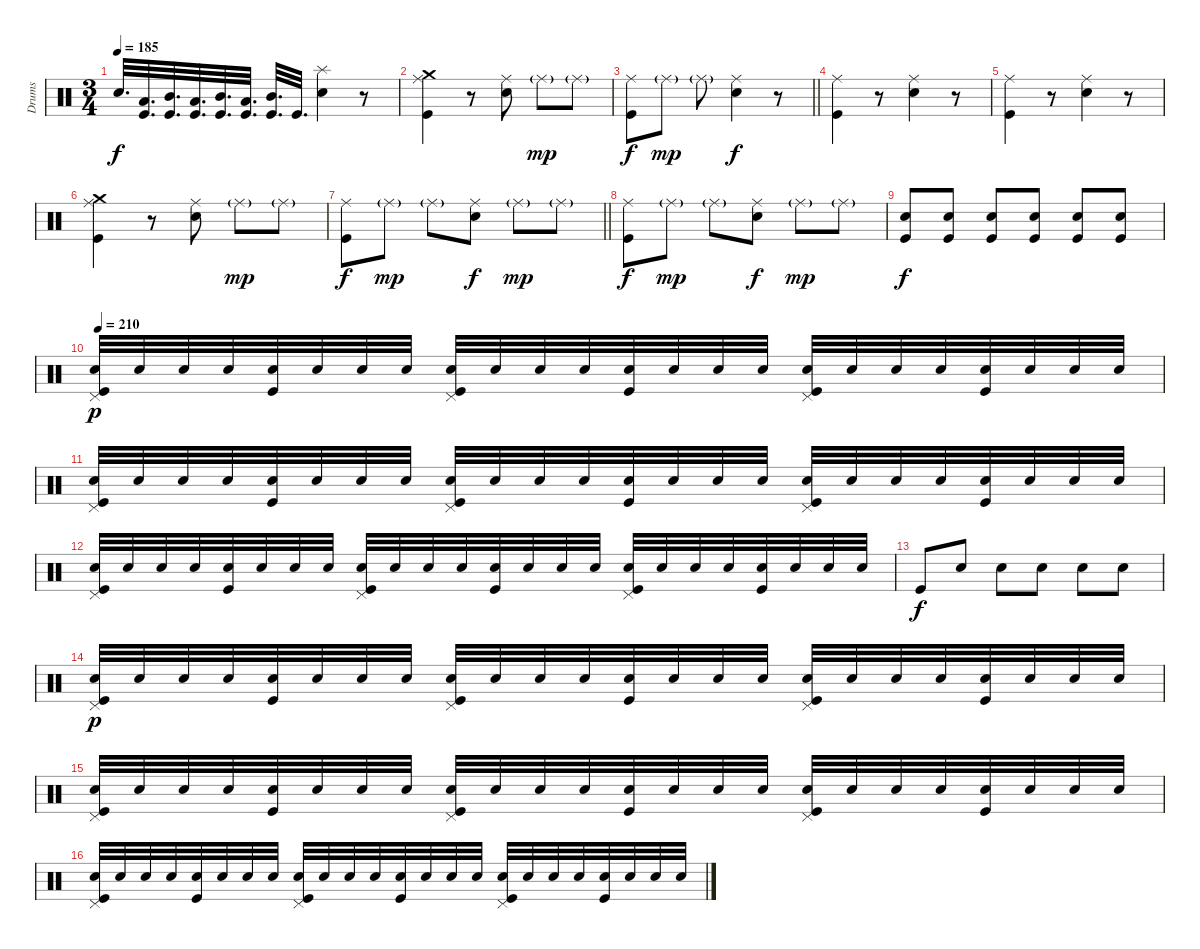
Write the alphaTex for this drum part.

\track ("Drums" "Drums") {instrument percussion}
\staff {score}
\articulation defaults
\ts (3 4)
\tempo 185
\clef neutral
\ks c "Snare (hit) 2".32{d dy f}
("Low Tom (hit)" "Kick (hit)").32{d} ("Mid Tom (hit)" "Kick (hit)").32{d} ("Low Tom (hit)" "Kick (hit)").32{d} ("Mid Tom (hit)" "Kick (hit)").32{d} ("Low Tom (hit)" "Kick (hit)").32{d} ("Mid Tom (hit)" "Kick (hit)").32{d} "Kick (hit)".32{d} ("Splash (hit)" "Snare (hit) 2").4 r.8 |
("Crash medium (hit)" "Ride (middle)" "Kick (hit)").4 r.8 ("Ride (middle)" "Snare (hit) 2").8 "Ride (middle)"{g}.8{dy mp} "Ride (middle)"{g}.8 |
\barLineRight lightlight
("Ride (middle)" "Kick (hit)").8{dy f} "Ride (middle)"{g}.8{dy mp} "Ride (middle)"{g}.8 ("Ride (middle)" "Snare (hit) 2").4{dy f} r.8 |
("Ride (middle)" "Kick (hit)").4 r.8 ("Ride (middle)" "Snare (hit) 2").4 r.8 |
("Ride (middle)" "Kick (hit)").4 r.8 ("Ride (middle)" "Snare (hit) 2").4 r.8 |
("Crash medium (hit)" "Ride (middle)" "Kick (hit)").4 r.8 ("Ride (middle)" "Snare (hit) 2").8 "Ride (middle)"{g}.8{dy mp} "Ride (middle)"{g}.8 |
\barLineRight lightlight
("Ride (middle)" "Kick (hit)").8{dy f} "Ride (middle)"{g}.8{dy mp} "Ride (middle)"{g}.8 ("Ride (middle)" "Snare (hit) 2").8{dy f} "Ride (middle)"{g}.8{dy mp} "Ride (middle)"{g}.8 |
("Ride (middle)" "Kick (hit)").8{dy f} "Ride (middle)"{g}.8{dy mp} "Ride (middle)"{g}.8 ("Ride (middle)" "Snare (hit) 2").8{dy f} "Ride (middle)"{g}.8{dy mp} "Ride (middle)"{g}.8 |
("Snare (hit) 2" "Kick (hit)").8{dy f} ("Snare (hit) 2" "Kick (hit)").8 ("Snare (hit) 2" "Kick (hit)").8 ("Snare (hit) 2" "Kick (hit)").8 ("Snare (hit) 2" "Kick (hit)").8 ("Snare (hit) 2" "Kick (hit)").8 |
\tempo 210
("Snare (hit) 2" "Pedal Hi-Hat (hit)" "Kick (hit)").32{dy p} "Snare (hit) 2".32 "Snare (hit) 2".32 "Snare (hit) 2".32 ("Snare (hit) 2" "Kick (hit)").32 "Snare (hit) 2".32 "Snare (hit) 2".32 "Snare (hit) 2".32 ("Snare (hit) 2" "Pedal Hi-Hat (hit)" "Kick (hit)").32 "Snare (hit) 2".32 "Snare (hit) 2".32 "Snare (hit) 2".32 ("Snare (hit) 2" "Kick (hit)").32 "Snare (hit) 2".32 "Snare (hit) 2".32 "Snare (hit) 2".32 ("Snare (hit) 2" "Pedal Hi-Hat (hit)" "Kick (hit)").32 "Snare (hit) 2".32 "Snare (hit) 2".32 "Snare (hit) 2".32 ("Snare (hit) 2" "Kick (hit)").32 "Snare (hit) 2".32 "Snare (hit) 2".32 "Snare (hit) 2".32 |
("Snare (hit) 2" "Pedal Hi-Hat (hit)" "Kick (hit)").32 "Snare (hit) 2".32 "Snare (hit) 2".32 "Snare (hit) 2".32 ("Snare (hit) 2" "Kick (hit)").32 "Snare (hit) 2".32 "Snare (hit) 2".32 "Snare (hit) 2".32 ("Snare (hit) 2" "Pedal Hi-Hat (hit)" "Kick (hit)").32 "Snare (hit) 2".32 "Snare (hit) 2".32 "Snare (hit) 2".32 ("Snare (hit) 2" "Kick (hit)").32 "Snare (hit) 2".32 "Snare (hit) 2".32 "Snare (hit) 2".32 ("Snare (hit) 2" "Pedal Hi-Hat (hit)" "Kick (hit)").32 "Snare (hit) 2".32 "Snare (hit) 2".32 "Snare (hit) 2".32 ("Snare (hit) 2" "Kick (hit)").32 "Snare (hit) 2".32 "Snare (hit) 2".32 "Snare (hit) 2".32 |
("Snare (hit) 2" "Pedal Hi-Hat (hit)" "Kick (hit)").32 "Snare (hit) 2".32 "Snare (hit) 2".32 "Snare (hit) 2".32 ("Snare (hit) 2" "Kick (hit)").32 "Snare (hit) 2".32 "Snare (hit) 2".32 "Snare (hit) 2".32 ("Snare (hit) 2" "Pedal Hi-Hat (hit)" "Kick (hit)").32 "Snare (hit) 2".32 "Snare (hit) 2".32 "Snare (hit) 2".32 ("Snare (hit) 2" "Kick (hit)").32 "Snare (hit) 2".32 "Snare (hit) 2".32 "Snare (hit) 2".32 ("Snare (hit) 2" "Pedal Hi-Hat (hit)" "Kick (hit)").32 "Snare (hit) 2".32 "Snare (hit) 2".32 "Snare (hit) 2".32 ("Snare (hit) 2" "Kick (hit)").32 "Snare (hit) 2".32 "Snare (hit) 2".32 "Snare (hit) 2".32 |
"Kick (hit)".8{dy f} "Snare (hit) 2".8 "Snare (hit) 2".8 "Snare (hit) 2".8 "Snare (hit) 2".8 "Snare (hit) 2".8 |
("Snare (hit) 2" "Pedal Hi-Hat (hit)" "Kick (hit)").32{dy p} "Snare (hit) 2".32 "Snare (hit) 2".32 "Snare (hit) 2".32 ("Snare (hit) 2" "Kick (hit)").32 "Snare (hit) 2".32 "Snare (hit) 2".32 "Snare (hit) 2".32 ("Snare (hit) 2" "Pedal Hi-Hat (hit)" "Kick (hit)").32 "Snare (hit) 2".32 "Snare (hit) 2".32 "Snare (hit) 2".32 ("Snare (hit) 2" "Kick (hit)").32 "Snare (hit) 2".32 "Snare (hit) 2".32 "Snare (hit) 2".32 ("Snare (hit) 2" "Pedal Hi-Hat (hit)" "Kick (hit)").32 "Snare (hit) 2".32 "Snare (hit) 2".32 "Snare (hit) 2".32 ("Snare (hit) 2" "Kick (hit)").32 "Snare (hit) 2".32 "Snare (hit) 2".32 "Snare (hit) 2".32 |
("Snare (hit) 2" "Pedal Hi-Hat (hit)" "Kick (hit)").32 "Snare (hit) 2".32 "Snare (hit) 2".32 "Snare (hit) 2".32 ("Snare (hit) 2" "Kick (hit)").32 "Snare (hit) 2".32 "Snare (hit) 2".32 "Snare (hit) 2".32 ("Snare (hit) 2" "Pedal Hi-Hat (hit)" "Kick (hit)").32 "Snare (hit) 2".32 "Snare (hit) 2".32 "Snare (hit) 2".32 ("Snare (hit) 2" "Kick (hit)").32 "Snare (hit) 2".32 "Snare (hit) 2".32 "Snare (hit) 2".32 ("Snare (hit) 2" "Pedal Hi-Hat (hit)" "Kick (hit)").32 "Snare (hit) 2".32 "Snare (hit) 2".32 "Snare (hit) 2".32 ("Snare (hit) 2" "Kick (hit)").32 "Snare (hit) 2".32 "Snare (hit) 2".32 "Snare (hit) 2".32 |
("Snare (hit) 2" "Pedal Hi-Hat (hit)" "Kick (hit)").32 "Snare (hit) 2".32 "Snare (hit) 2".32 "Snare (hit) 2".32 ("Snare (hit) 2" "Kick (hit)").32 "Snare (hit) 2".32 "Snare (hit) 2".32 "Snare (hit) 2".32 ("Snare (hit) 2" "Pedal Hi-Hat (hit)" "Kick (hit)").32 "Snare (hit) 2".32 "Snare (hit) 2".32 "Snare (hit) 2".32 ("Snare (hit) 2" "Kick (hit)").32 "Snare (hit) 2".32 "Snare (hit) 2".32 "Snare (hit) 2".32 ("Snare (hit) 2" "Pedal Hi-Hat (hit)" "Kick (hit)").32 "Snare (hit) 2".32 "Snare (hit) 2".32 "Snare (hit) 2".32 ("Snare (hit) 2" "Kick (hit)").32 "Snare (hit) 2".32 "Snare (hit) 2".32 "Snare (hit) 2".32
